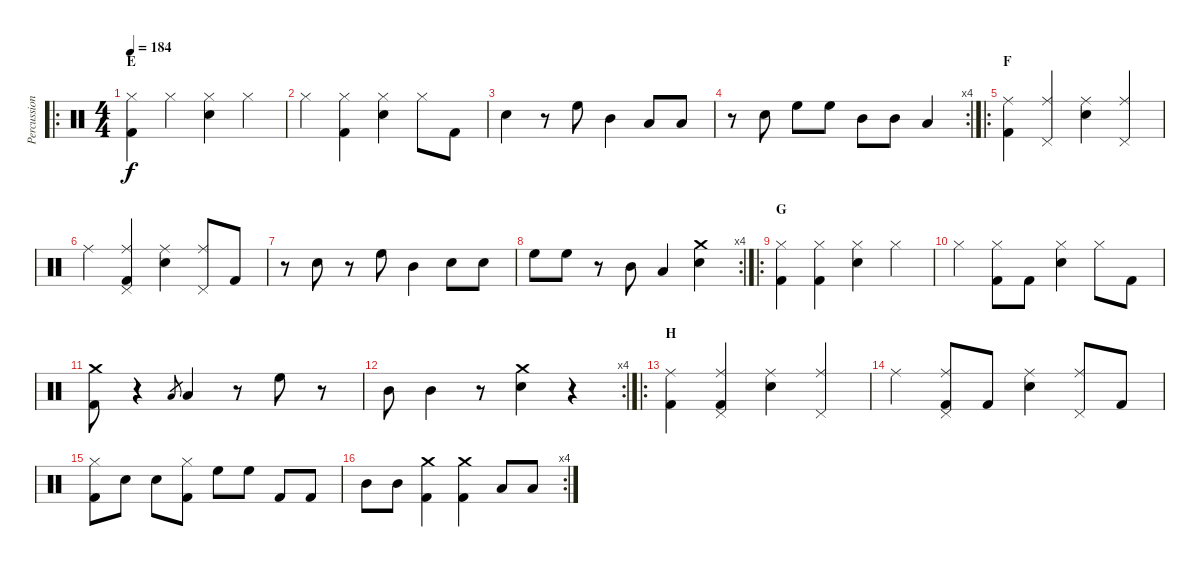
\track ("Percussioni" "Percussion") {instrument percussion}
\staff {score}
\articulation defaults
\ro
\ts (4 4)
\section ("" "E")
\tempo 184
\clef neutral
\ks c
("Hi-Hat (closed)" "Kick (hit) 2").4{dy f} "Hi-Hat (closed)".4 ("Hi-Hat (closed)" "Snare (hit) 2").4 "Hi-Hat (closed)".4 |
"Hi-Hat (closed)".4 ("Hi-Hat (closed)" "Kick (hit) 2").4 ("Hi-Hat (closed)" "Snare (hit) 2").4 "Hi-Hat (closed)".8 "Kick (hit) 2".8 |
"Snare (hit) 2".4 r.8 "High Floor Tom (hit)".8 "Mid Tom (hit)".4 "Low Floor Tom (hit)".8 "Low Floor Tom (hit)".8 |
\rc 4
r.8 "Snare (hit) 2".8 "High Floor Tom (hit)".8 "High Floor Tom (hit)".8 "Mid Tom (hit)".8 "Mid Tom (hit)".8 "Low Floor Tom (hit)".4 |
\ro
\section ("" "F")
("Ride (middle)" "Kick (hit) 2").4 ("Ride (middle)" "Pedal Hi-Hat (hit)").4 ("Ride (middle)" "Snare (hit) 2").4 ("Ride (middle)" "Pedal Hi-Hat (hit)").4 |
"Ride (middle)".4 ("Ride (middle)" "Pedal Hi-Hat (hit)" "Kick (hit) 2").4 ("Ride (middle)" "Snare (hit) 2").4 ("Ride (middle)" "Pedal Hi-Hat (hit)").8 "Kick (hit) 2".8 |
r.8 "Snare (hit) 2".8 r.8 "High Floor Tom (hit)".8 "Mid Tom (hit)".4 "Snare (hit) 2".8 "Snare (hit) 2".8 |
\rc 4 "High Floor Tom (hit)".8 "High Floor Tom (hit)".8
r.8 "Mid Tom (hit)".8 "Low Floor Tom (hit)".4 ("Snare (hit) 2" "Crash medium (hit)").4 |
\ro
\section ("" "G")
("Hi-Hat (closed)" "Kick (hit) 2").4 ("Hi-Hat (closed)" "Kick (hit) 2").4 ("Hi-Hat (closed)" "Snare (hit) 2").4 "Hi-Hat (closed)".4 |
"Hi-Hat (closed)".4 ("Hi-Hat (closed)" "Kick (hit) 2").8 "Kick (hit) 2".8 ("Hi-Hat (closed)" "Snare (hit) 2").4 "Hi-Hat (closed)".8 "Kick (hit) 2".8 |
("Crash medium (hit)" "Kick (hit) 2").8 r.4 "Low Floor Tom (hit)".8{gr} "Low Floor Tom (hit)".4 r.8 "High Floor Tom (hit)".8 r.8 |
\rc 4 "Mid Tom (hit)".8 "Mid Tom (hit)".4
r.8 ("Snare (hit) 2" "Crash medium (hit)").4 r.4 |
\ro
\section ("" "H")
("Ride (middle)" "Kick (hit) 2").4 ("Ride (middle)" "Pedal Hi-Hat (hit)" "Kick (hit) 2").4 ("Ride (middle)" "Snare (hit) 2").4 ("Ride (middle)" "Pedal Hi-Hat (hit)").4 |
"Ride (middle)".4 ("Ride (middle)" "Pedal Hi-Hat (hit)" "Kick (hit) 2").8 "Kick (hit) 2".8 ("Ride (middle)" "Snare (hit) 2").4 ("Ride (middle)" "Pedal Hi-Hat (hit)").8 "Kick (hit) 2".8 |
("Hi-Hat (closed)" "Kick (hit) 2").8 "Snare (hit) 2".8 "Snare (hit) 2".8 ("Hi-Hat (closed)" "Kick (hit) 2").8 "High Floor Tom (hit)".8 "High Floor Tom (hit)".8 "Kick (hit) 2".8 "Kick (hit) 2".8 |
\rc 4 "Mid Tom (hit)".8 "Mid Tom (hit)".8
("Kick (hit) 2" "Crash medium (hit)").4 ("Kick (hit) 2" "Crash medium (hit)").4 "Low Floor Tom (hit)".8 "Low Floor Tom (hit)".8
